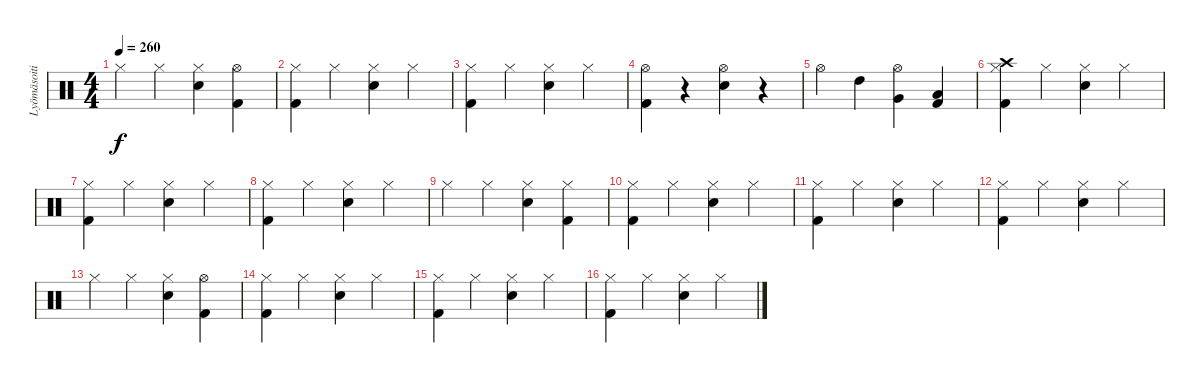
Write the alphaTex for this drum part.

\track ("Lyömäsoitin" "Lyömäsoiti") {instrument percussion}
\staff {score}
\articulation defaults
\ts (4 4)
\tempo 260
\clef neutral
\ks c "Hi-Hat (closed)".4{dy f} "Hi-Hat (closed)".4
("Hi-Hat (closed)" "Electric Snare (hit)").4 ("Hi-Hat (open)" "Kick (hit) 2").4 |
("Hi-Hat (closed)" "Kick (hit) 2").4 "Hi-Hat (closed)".4 ("Hi-Hat (closed)" "Electric Snare (hit)").4 "Hi-Hat (closed)".4 |
("Hi-Hat (closed)" "Kick (hit) 2").4 "Hi-Hat (closed)".4 ("Hi-Hat (closed)" "Electric Snare (hit)").4 "Hi-Hat (closed)".4 |
("Hi-Hat (open)" "Kick (hit) 2").4 r.4 ("Hi-Hat (open)" "Electric Snare (hit)").4 r.4 |
"Hi-Hat (open)".4 "High Tom (hit)".4 ("Hi-Hat (open)" "Very Low Tom (hit)").4 ("Low Floor Tom (hit)" "Kick (hit) 2").4 |
("Crash high (hit)" "Hi-Hat (closed)" "Kick (hit) 2").4 "Hi-Hat (closed)".4 ("Hi-Hat (closed)" "Electric Snare (hit)").4 "Hi-Hat (closed)".4 |
("Hi-Hat (closed)" "Kick (hit) 2").4 "Hi-Hat (closed)".4 ("Hi-Hat (closed)" "Electric Snare (hit)").4 "Hi-Hat (closed)".4 |
("Hi-Hat (closed)" "Kick (hit) 2").4 "Hi-Hat (closed)".4 ("Hi-Hat (closed)" "Electric Snare (hit)").4 "Hi-Hat (closed)".4 |
"Hi-Hat (closed)".4 "Hi-Hat (closed)".4 ("Hi-Hat (closed)" "Electric Snare (hit)").4 ("Hi-Hat (closed)" "Kick (hit) 2").4 |
("Hi-Hat (closed)" "Kick (hit) 2").4 "Hi-Hat (closed)".4 ("Hi-Hat (closed)" "Electric Snare (hit)").4 "Hi-Hat (closed)".4 |
("Hi-Hat (closed)" "Kick (hit) 2").4 "Hi-Hat (closed)".4 ("Hi-Hat (closed)" "Electric Snare (hit)").4 "Hi-Hat (closed)".4 |
("Hi-Hat (closed)" "Kick (hit) 2").4 "Hi-Hat (closed)".4 ("Hi-Hat (closed)" "Electric Snare (hit)").4 "Hi-Hat (closed)".4 |
"Hi-Hat (closed)".4 "Hi-Hat (closed)".4 ("Hi-Hat (closed)" "Electric Snare (hit)").4 ("Hi-Hat (open)" "Kick (hit) 2").4 |
("Hi-Hat (closed)" "Kick (hit) 2").4 "Hi-Hat (closed)".4 ("Hi-Hat (closed)" "Electric Snare (hit)").4 "Hi-Hat (closed)".4 |
("Hi-Hat (closed)" "Kick (hit) 2").4 "Hi-Hat (closed)".4 ("Hi-Hat (closed)" "Electric Snare (hit)").4 "Hi-Hat (closed)".4 |
("Hi-Hat (closed)" "Kick (hit) 2").4 "Hi-Hat (closed)".4 ("Hi-Hat (closed)" "Electric Snare (hit)").4 "Hi-Hat (closed)".4
